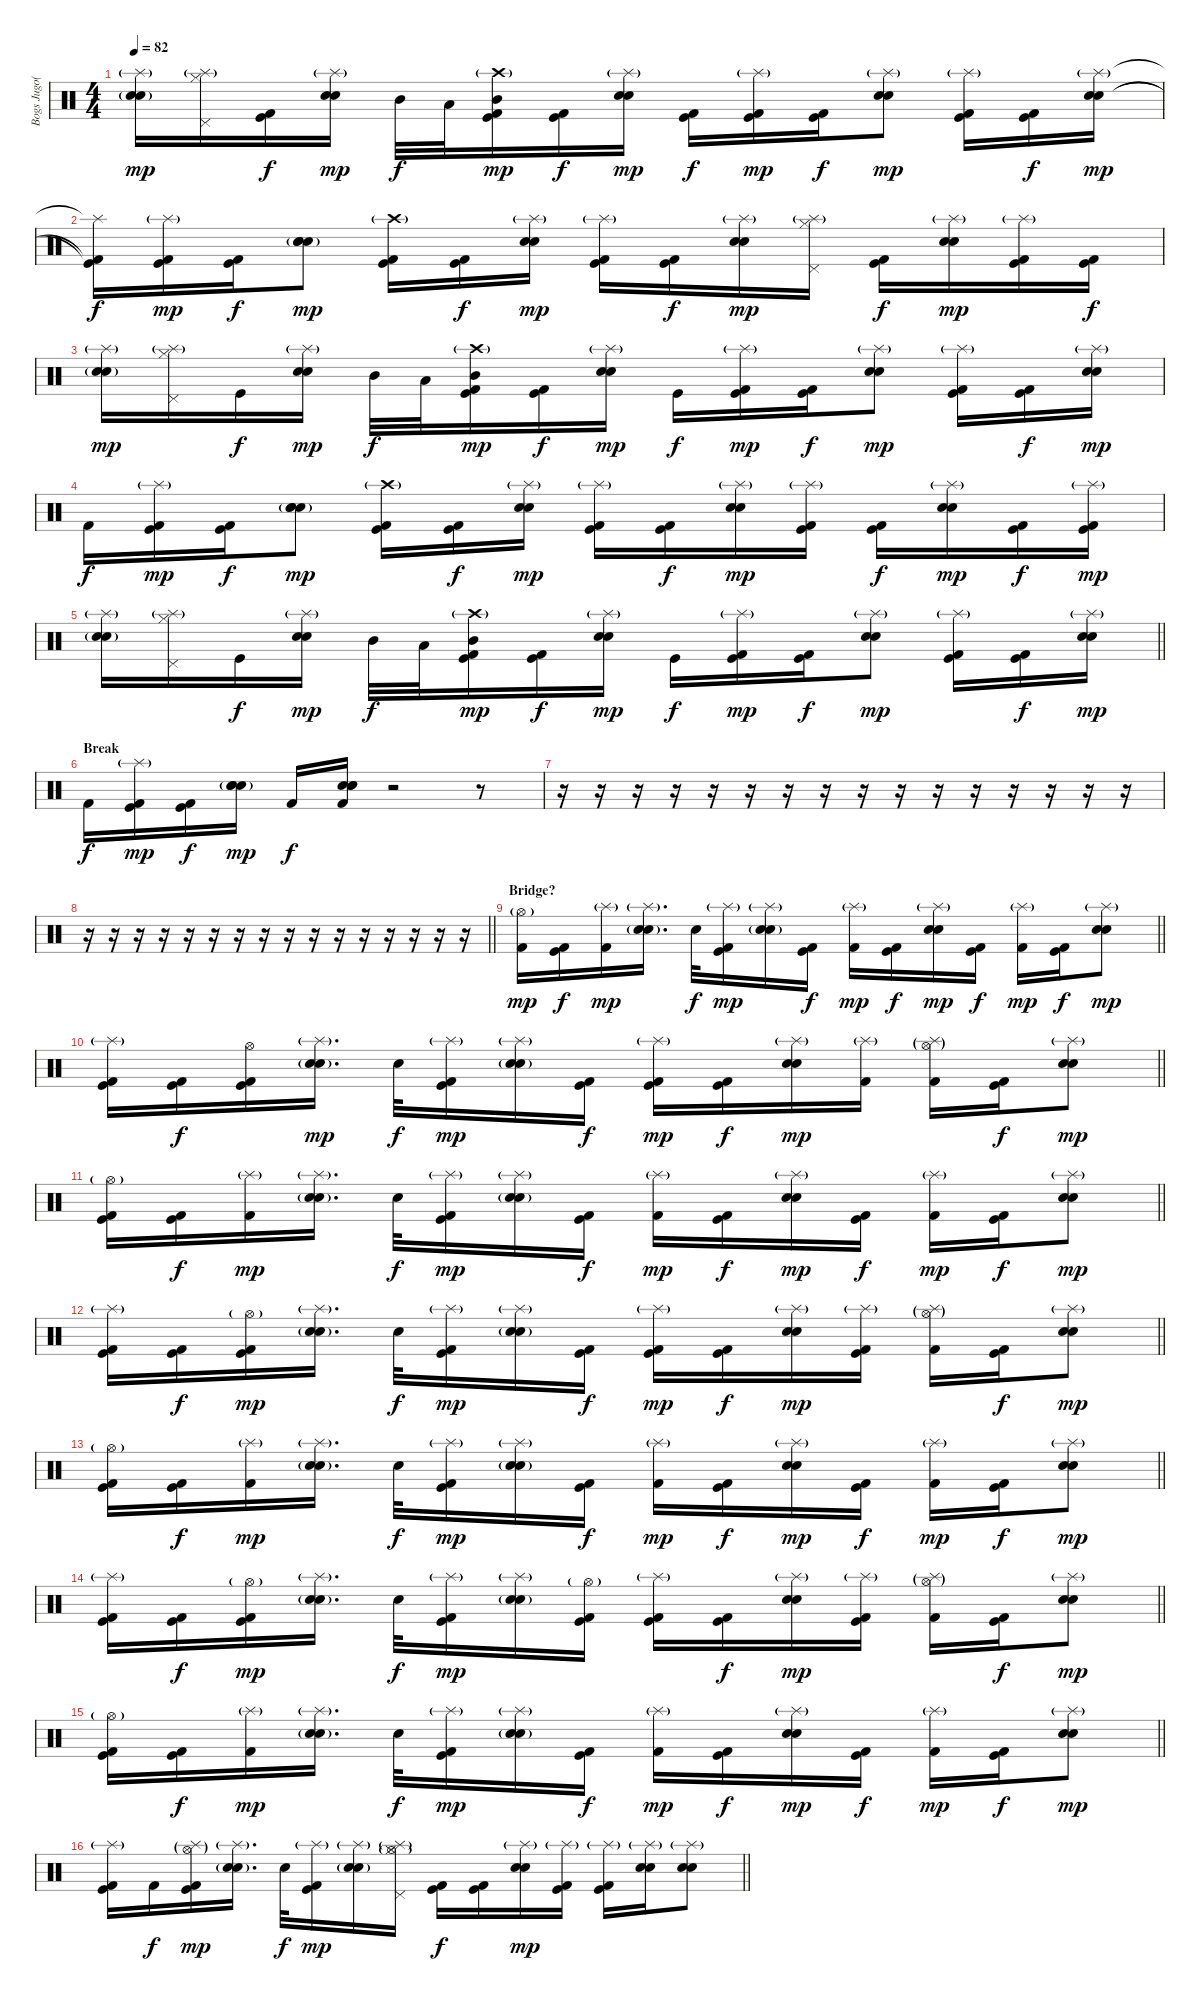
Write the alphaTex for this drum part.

\track ("Bogs Jugo(Drums)" "Bogs Jugo(") {instrument percussion}
\staff {score}
\articulation defaults
\ts (4 4)
\tempo 82
\clef neutral
\ks c
("Electric Snare (hit)" "Snare (hit) 2"{g} "Splash (hit)"{g}).16{dy mp} ("Pedal Hi-Hat (hit)" "Hi-Hat (closed)" "Splash (hit)"{g}).16 ("Kick (hit)" "Kick (hit) 2").16{dy f} ("Electric Snare (hit)" "Snare (hit) 2" "Splash (hit)"{g}).16{dy mp} "Mid Tom (hit)".32{dy f} "Low Tom (hit)".32 ("Kick (hit) 2" "Kick (hit)" "Crash high (hit)"{g} "Mid Tom (hit)").16{dy mp} ("Kick (hit) 2" "Kick (hit)").16{dy f} ("Electric Snare (hit)" "Snare (hit) 2" "Splash (hit)"{g}).16{dy mp} ("Kick (hit) 2" "Kick (hit)").16{dy f} ("Kick (hit) 2" "Kick (hit)" "Splash (hit)"{g}).16{dy mp} ("Kick (hit) 2" "Kick (hit)").16{dy f} ("Snare (hit) 2" "Electric Snare (hit)" "Splash (hit)"{g}).8{dy mp} ("Kick (hit) 2" "Kick (hit)" "Splash (hit)"{g}).16 ("Kick (hit) 2" "Kick (hit)").16{dy f} ("Electric Snare (hit)" "Snare (hit) 2" "Splash (hit)"{g}).16{dy mp} |
("Kick (hit) 2"{t} "Kick (hit)"{t} "Splash (hit)"{t}).16{dy f} ("Kick (hit) 2" "Kick (hit)" "Splash (hit)"{g}).16{dy mp} ("Kick (hit) 2" "Kick (hit)").16{dy f} ("Electric Snare (hit)" "Electric Snare (hit)" "Snare (hit) 2"{g}).8{bu 30 dy mp} ("Crash high (hit)"{g} "Kick (hit) 2" "Kick (hit)").16 ("Kick (hit) 2" "Kick (hit)").16{dy f} ("Electric Snare (hit)" "Snare (hit) 2" "Splash (hit)"{g}).16{dy mp} ("Kick (hit) 2" "Kick (hit)" "Splash (hit)"{g}).16 ("Kick (hit) 2" "Kick (hit)").16{dy f} ("Electric Snare (hit)" "Snare (hit) 2" "Splash (hit)"{g}).16{dy mp} ("Pedal Hi-Hat (hit)" "Hi-Hat (closed)" "Splash (hit)"{g}).16 ("Kick (hit) 2" "Kick (hit)").16{dy f} ("Electric Snare (hit)" "Snare (hit) 2" "Splash (hit)"{g}).16{dy mp} ("Kick (hit) 2" "Kick (hit)" "Splash (hit)"{g}).16 ("Kick (hit) 2" "Kick (hit)").16{dy f} |
("Electric Snare (hit)" "Snare (hit) 2"{g} "Splash (hit)"{g}).16{dy mp} ("Pedal Hi-Hat (hit)" "Hi-Hat (closed)" "Splash (hit)"{g}).16 "Kick (hit)".16{dy f} ("Electric Snare (hit)" "Snare (hit) 2" "Splash (hit)"{g}).16{dy mp} "Mid Tom (hit)".32{dy f} "Low Tom (hit)".32 ("Kick (hit) 2" "Kick (hit)" "Crash high (hit)"{g} "Mid Tom (hit)").16{dy mp} ("Kick (hit) 2" "Kick (hit)").16{dy f} ("Electric Snare (hit)" "Snare (hit) 2" "Splash (hit)"{g}).16{dy mp} "Kick (hit)".16{dy f} ("Kick (hit) 2" "Kick (hit)" "Splash (hit)"{g}).16{dy mp} ("Kick (hit) 2" "Kick (hit)").16{dy f} ("Snare (hit) 2" "Electric Snare (hit)" "Splash (hit)"{g}).8{dy mp} ("Kick (hit) 2" "Kick (hit)" "Splash (hit)"{g}).16 ("Kick (hit) 2" "Kick (hit)").16{dy f} ("Electric Snare (hit)" "Snare (hit) 2" "Splash (hit)"{g}).16{dy mp} |
"Kick (hit) 2".16{dy f} ("Kick (hit) 2" "Kick (hit)" "Splash (hit)"{g}).16{dy mp} ("Kick (hit) 2" "Kick (hit)").16{dy f} ("Electric Snare (hit)" "Electric Snare (hit)" "Snare (hit) 2"{g}).8{dy mp} ("Crash high (hit)"{g} "Kick (hit) 2" "Kick (hit)").16 ("Kick (hit) 2" "Kick (hit)").16{dy f} ("Electric Snare (hit)" "Snare (hit) 2" "Splash (hit)"{g}).16{dy mp} ("Kick (hit) 2" "Kick (hit)" "Splash (hit)"{g}).16 ("Kick (hit) 2" "Kick (hit)").16{dy f} ("Electric Snare (hit)" "Snare (hit) 2" "Splash (hit)"{g}).16{dy mp} ("Kick (hit)" "Kick (hit) 2" "Splash (hit)"{g}).16 ("Kick (hit) 2" "Kick (hit)").16{dy f} ("Electric Snare (hit)" "Snare (hit) 2" "Splash (hit)"{g}).16{dy mp} ("Kick (hit) 2" "Kick (hit)").16{dy f} ("Kick (hit) 2" "Kick (hit)" "Splash (hit)"{g}).16{dy mp} |
\barLineRight lightlight
("Electric Snare (hit)" "Snare (hit) 2"{g} "Splash (hit)"{g}).16 ("Pedal Hi-Hat (hit)" "Hi-Hat (closed)" "Splash (hit)"{g}).16 "Kick (hit)".16{dy f} ("Electric Snare (hit)" "Snare (hit) 2" "Splash (hit)"{g}).16{dy mp} "Mid Tom (hit)".32{dy f} "Low Tom (hit)".32 ("Kick (hit) 2" "Kick (hit)" "Crash high (hit)"{g} "Mid Tom (hit)").16{dy mp} ("Kick (hit) 2" "Kick (hit)").16{dy f} ("Electric Snare (hit)" "Snare (hit) 2" "Splash (hit)"{g}).16{dy mp} "Kick (hit)".16{dy f} ("Kick (hit) 2" "Kick (hit)" "Splash (hit)"{g}).16{dy mp} ("Kick (hit) 2" "Kick (hit)").16{dy f} ("Snare (hit) 2" "Electric Snare (hit)" "Splash (hit)"{g}).8{dy mp} ("Kick (hit) 2" "Kick (hit)" "Splash (hit)"{g}).16 ("Kick (hit) 2" "Kick (hit)").16{dy f} ("Electric Snare (hit)" "Snare (hit) 2" "Splash (hit)"{g}).16{dy mp} |
\section ("" "Break")
"Kick (hit) 2".16{dy f} ("Kick (hit) 2" "Kick (hit)" "Splash (hit)"{g}).16{dy mp} ("Kick (hit) 2" "Kick (hit)").16{dy f} ("Electric Snare (hit)" "Electric Snare (hit)" "Snare (hit) 2"{g}).16{dy mp} "Kick (hit) 2".16{dy f} ("Electric Snare (hit)" "Electric Snare (hit)" "Snare (hit) 2" "Kick (hit) 2").16{bu 30} r.2 r.8 |
r.16 r.16 r.16 r.16 r.16 r.16 r.16 r.16 r.16 r.16 r.16 r.16 r.16 r.16 r.16 r.16 |
\barLineRight lightlight
r.16 r.16 r.16 r.16 r.16 r.16 r.16 r.16 r.16 r.16 r.16 r.16 r.16 r.16 r.16 r.16 |
\section ("" "Bridge?")
\barLineRight lightlight
("Kick (hit) 2" "Hi-Hat (open)"{g}).16{dy mp} ("Kick (hit) 2" "Kick (hit)").16{dy f} ("Kick (hit) 2" "Splash (hit)"{g}).16{dy mp} ("Electric Snare (hit)" "Snare (hit) 2"{g} "Splash (hit)"{g}).16{d} "Electric Snare (hit)".32{dy f} ("Kick (hit) 2" "Kick (hit)" "Splash (hit)"{g}).16{dy mp} ("Electric Snare (hit)" "Snare (hit) 2"{g} "Splash (hit)"{g}).16 ("Kick (hit) 2" "Kick (hit)").16{dy f} ("Kick (hit) 2" "Splash (hit)"{g}).16{dy mp} ("Kick (hit) 2" "Kick (hit)").16{dy f} ("Electric Snare (hit)" "Snare (hit) 2" "Splash (hit)"{g}).16{dy mp} ("Kick (hit) 2" "Kick (hit)").16{dy f} ("Kick (hit) 2" "Splash (hit)"{g}).16{dy mp} ("Kick (hit) 2" "Kick (hit)").16{dy f} ("Electric Snare (hit)" "Snare (hit) 2" "Splash (hit)"{g}).8{dy mp} |
\barLineRight lightlight
("Kick (hit) 2" "Kick (hit)" "Splash (hit)"{g}).16 ("Kick (hit) 2" "Kick (hit)").16{dy f} ("Kick (hit) 2" "Kick (hit)" "Hi-Hat (open)").16 ("Electric Snare (hit)" "Snare (hit) 2"{g} "Splash (hit)"{g}).16{d dy mp} "Electric Snare (hit)".32{dy f} ("Kick (hit) 2" "Kick (hit)" "Splash (hit)"{g}).16{dy mp} ("Electric Snare (hit)" "Snare (hit) 2"{g} "Splash (hit)"{g}).16 ("Kick (hit) 2" "Kick (hit)").16{dy f} ("Kick (hit) 2" "Kick (hit)" "Splash (hit)"{g}).16{dy mp} ("Kick (hit) 2" "Kick (hit)").16{dy f} ("Electric Snare (hit)" "Snare (hit) 2" "Splash (hit)"{g}).16{dy mp} ("Kick (hit) 2" "Splash (hit)"{g}).16 ("Kick (hit) 2" "Splash (hit)"{g} "Hi-Hat (open)"{g}).16 ("Kick (hit) 2" "Kick (hit)").16{dy f} ("Electric Snare (hit)" "Snare (hit) 2" "Splash (hit)"{g}).8{dy mp} |
\barLineRight lightlight
("Kick (hit) 2" "Kick (hit)" "Hi-Hat (open)"{g}).16 ("Kick (hit) 2" "Kick (hit)").16{dy f} ("Kick (hit) 2" "Splash (hit)"{g}).16{dy mp} ("Electric Snare (hit)" "Snare (hit) 2"{g} "Splash (hit)"{g}).16{d} "Electric Snare (hit)".32{dy f} ("Kick (hit) 2" "Kick (hit)" "Splash (hit)"{g}).16{dy mp} ("Electric Snare (hit)" "Snare (hit) 2"{g} "Splash (hit)"{g}).16 ("Kick (hit) 2" "Kick (hit)").16{dy f} ("Kick (hit) 2" "Splash (hit)"{g}).16{dy mp} ("Kick (hit) 2" "Kick (hit)").16{dy f} ("Electric Snare (hit)" "Snare (hit) 2" "Splash (hit)"{g}).16{dy mp} ("Kick (hit) 2" "Kick (hit)").16{dy f} ("Kick (hit) 2" "Splash (hit)"{g}).16{dy mp} ("Kick (hit) 2" "Kick (hit)").16{dy f} ("Electric Snare (hit)" "Snare (hit) 2" "Splash (hit)"{g}).8{dy mp} |
\barLineRight lightlight
("Kick (hit) 2" "Kick (hit)" "Splash (hit)"{g}).16 ("Kick (hit) 2" "Kick (hit)").16{dy f} ("Kick (hit) 2" "Kick (hit)" "Hi-Hat (open)"{g}).16{dy mp} ("Electric Snare (hit)" "Snare (hit) 2"{g} "Splash (hit)"{g}).16{d} "Electric Snare (hit)".32{dy f} ("Kick (hit) 2" "Kick (hit)" "Splash (hit)"{g}).16{dy mp} ("Electric Snare (hit)" "Snare (hit) 2"{g} "Splash (hit)"{g}).16 ("Kick (hit) 2" "Kick (hit)").16{dy f} ("Kick (hit) 2" "Kick (hit)" "Splash (hit)"{g}).16{dy mp} ("Kick (hit) 2" "Kick (hit)").16{dy f} ("Electric Snare (hit)" "Snare (hit) 2" "Splash (hit)"{g}).16{dy mp} ("Kick (hit) 2" "Kick (hit)" "Splash (hit)"{g}).16 ("Kick (hit) 2" "Splash (hit)"{g} "Hi-Hat (open)"{g}).16 ("Kick (hit) 2" "Kick (hit)").16{dy f} ("Electric Snare (hit)" "Snare (hit) 2" "Splash (hit)"{g}).8{dy mp} |
\barLineRight lightlight
("Kick (hit) 2" "Kick (hit)" "Hi-Hat (open)"{g}).16 ("Kick (hit) 2" "Kick (hit)").16{dy f} ("Kick (hit) 2" "Splash (hit)"{g}).16{dy mp} ("Electric Snare (hit)" "Snare (hit) 2"{g} "Splash (hit)"{g}).16{d} "Electric Snare (hit)".32{dy f} ("Kick (hit) 2" "Kick (hit)" "Splash (hit)"{g}).16{dy mp} ("Electric Snare (hit)" "Snare (hit) 2"{g} "Splash (hit)"{g}).16 ("Kick (hit) 2" "Kick (hit)").16{dy f} ("Kick (hit) 2" "Splash (hit)"{g}).16{dy mp} ("Kick (hit) 2" "Kick (hit)").16{dy f} ("Electric Snare (hit)" "Snare (hit) 2" "Splash (hit)"{g}).16{dy mp} ("Kick (hit) 2" "Kick (hit)").16{dy f} ("Kick (hit) 2" "Splash (hit)"{g}).16{dy mp} ("Kick (hit) 2" "Kick (hit)").16{dy f} ("Electric Snare (hit)" "Snare (hit) 2" "Splash (hit)"{g}).8{dy mp} |
\barLineRight lightlight
("Kick (hit) 2" "Kick (hit)" "Splash (hit)"{g}).16 ("Kick (hit) 2" "Kick (hit)").16{dy f} ("Kick (hit) 2" "Kick (hit)" "Hi-Hat (open)"{g}).16{dy mp} ("Electric Snare (hit)" "Snare (hit) 2"{g} "Splash (hit)"{g}).16{d} "Electric Snare (hit)".32{dy f} ("Kick (hit) 2" "Kick (hit)" "Splash (hit)"{g}).16{dy mp} ("Electric Snare (hit)" "Snare (hit) 2"{g} "Splash (hit)"{g}).16 ("Kick (hit) 2" "Kick (hit)" "Hi-Hat (open)"{g}).16 ("Kick (hit) 2" "Kick (hit)" "Splash (hit)"{g}).16 ("Kick (hit) 2" "Kick (hit)").16{dy f} ("Electric Snare (hit)" "Snare (hit) 2" "Splash (hit)"{g}).16{dy mp} ("Kick (hit) 2" "Kick (hit)" "Splash (hit)"{g}).16 ("Kick (hit) 2" "Splash (hit)"{g} "Hi-Hat (open)"{g}).16 ("Kick (hit) 2" "Kick (hit)").16{dy f} ("Electric Snare (hit)" "Snare (hit) 2" "Splash (hit)"{g}).8{dy mp} |
\barLineRight lightlight
("Kick (hit) 2" "Kick (hit)" "Hi-Hat (open)"{g}).16 ("Kick (hit) 2" "Kick (hit)").16{dy f} ("Kick (hit) 2" "Splash (hit)"{g}).16{dy mp} ("Electric Snare (hit)" "Snare (hit) 2"{g} "Splash (hit)"{g}).16{d} "Electric Snare (hit)".32{dy f} ("Kick (hit) 2" "Kick (hit)" "Splash (hit)"{g}).16{dy mp} ("Electric Snare (hit)" "Snare (hit) 2"{g} "Splash (hit)"{g}).16 ("Kick (hit) 2" "Kick (hit)").16{dy f} ("Kick (hit) 2" "Splash (hit)"{g}).16{dy mp} ("Kick (hit) 2" "Kick (hit)").16{dy f} ("Electric Snare (hit)" "Snare (hit) 2" "Splash (hit)"{g}).16{dy mp} ("Kick (hit) 2" "Kick (hit)").16{dy f} ("Kick (hit) 2" "Splash (hit)"{g}).16{dy mp} ("Kick (hit) 2" "Kick (hit)").16{dy f} ("Electric Snare (hit)" "Snare (hit) 2" "Splash (hit)"{g}).8{dy mp} |
\barLineRight lightlight
("Kick (hit) 2" "Kick (hit)" "Splash (hit)"{g}).16 "Kick (hit) 2".16{dy f} ("Kick (hit) 2" "Kick (hit)" "Hi-Hat (open)"{g} "Splash (hit)"{g}).16{dy mp} ("Electric Snare (hit)" "Snare (hit) 2"{g} "Splash (hit)"{g}).16{d} "Electric Snare (hit)".32{dy f} ("Kick (hit) 2" "Kick (hit)" "Splash (hit)"{g}).16{dy mp} ("Electric Snare (hit)" "Snare (hit) 2"{g} "Splash (hit)"{g}).16 ("Pedal Hi-Hat (hit)" "Hi-Hat (closed)" "Hi-Hat (open)"{g} "Splash (hit)"{g}).16 ("Kick (hit) 2" "Kick (hit)").16{dy f} ("Kick (hit) 2" "Kick (hit)").16 ("Electric Snare (hit)" "Snare (hit) 2" "Splash (hit)"{g}).16{dy mp} ("Kick (hit) 2" "Kick (hit)" "Splash (hit)"{g}).16 ("Kick (hit) 2" "Kick (hit)" "Splash (hit)"{g}).16 ("Electric Snare (hit)" "Snare (hit) 2" "Splash (hit)"{g}).16 ("Electric Snare (hit)" "Snare (hit) 2" "Splash (hit)"{g}).8
